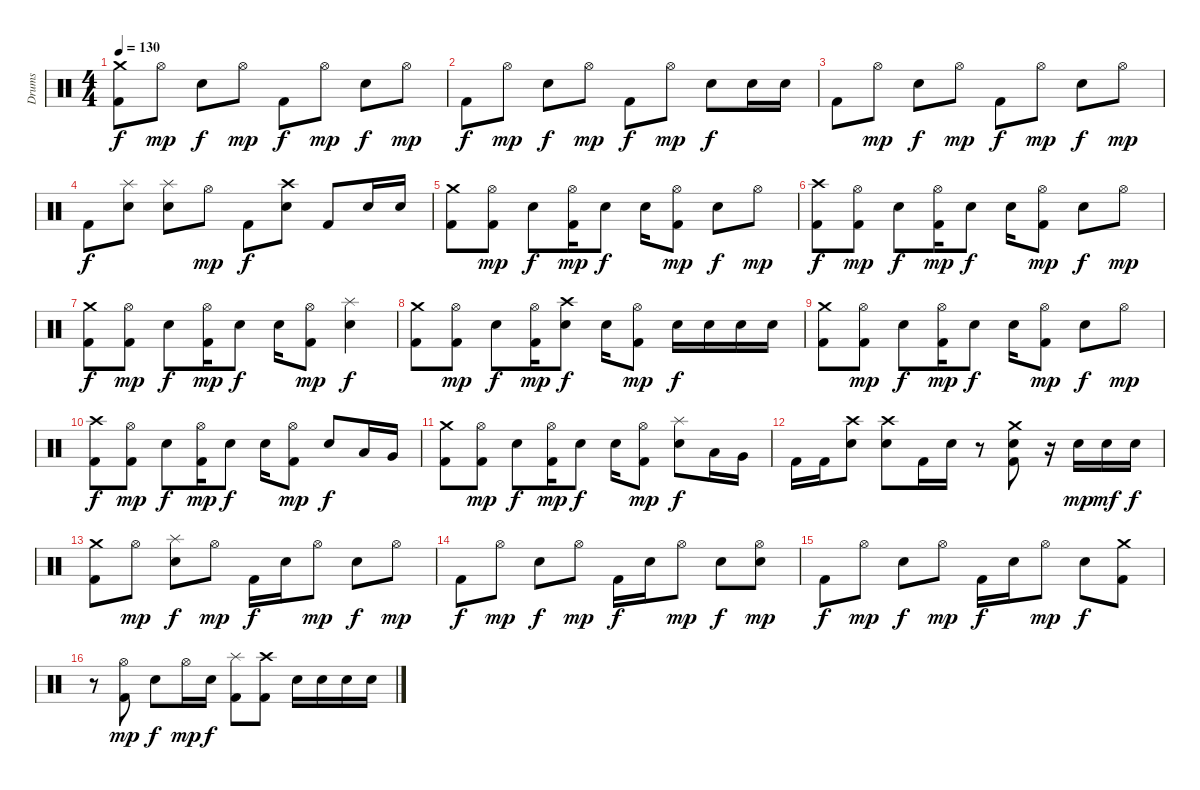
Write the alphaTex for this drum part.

\track ("Drums" "Drums") {instrument percussion}
\staff {score}
\articulation defaults
\ts (4 4)
\tempo 130
\clef neutral
\ks c
("Crash medium (hit)" "Kick (hit) 2").8{dy f} "Hi-Hat (open)".8{dy mp} "Snare (hit) 2".8{dy f} "Hi-Hat (open)".8{dy mp} "Kick (hit) 2".8{dy f} "Hi-Hat (open)".8{dy mp} "Snare (hit) 2".8{dy f} "Hi-Hat (open)".8{dy mp} |
"Kick (hit) 2".8{dy f} "Hi-Hat (open)".8{dy mp} "Snare (hit) 2".8{dy f} "Hi-Hat (open)".8{dy mp} "Kick (hit) 2".8{dy f} "Hi-Hat (open)".8{dy mp} "Snare (hit) 2".8{dy f} "Snare (hit) 2".16 "Snare (hit) 2".16 |
"Kick (hit) 2".8 "Hi-Hat (open)".8{dy mp} "Snare (hit) 2".8{dy f} "Hi-Hat (open)".8{dy mp} "Kick (hit) 2".8{dy f} "Hi-Hat (open)".8{dy mp} "Snare (hit) 2".8{dy f} "Hi-Hat (open)".8{dy mp} |
"Kick (hit) 2".8{dy f} ("Splash (hit)" "Snare (hit) 2").8 ("Splash (hit)" "Snare (hit) 2").8 "Hi-Hat (open)".8{dy mp} "Kick (hit) 2".8{dy f} ("Crash high (hit)" "Snare (hit) 2").8 "Kick (hit) 2".8 "Snare (hit) 2".16 "Snare (hit) 2".16 |
("Crash medium (hit)" "Kick (hit) 2").8 ("Hi-Hat (open)" "Kick (hit) 2").8{dy mp} "Snare (hit) 2".8{dy f} ("Hi-Hat (open)" "Kick (hit) 2").16{dy mp} "Snare (hit) 2".8{dy f} "Snare (hit) 2".16 ("Hi-Hat (open)" "Kick (hit) 2").8{dy mp} "Snare (hit) 2".8{dy f} "Hi-Hat (open)".8{dy mp} |
("Crash high (hit)" "Kick (hit) 2").8{dy f} ("Hi-Hat (open)" "Kick (hit) 2").8{dy mp} "Snare (hit) 2".8{dy f} ("Hi-Hat (open)" "Kick (hit) 2").16{dy mp} "Snare (hit) 2".8{dy f} "Snare (hit) 2".16 ("Hi-Hat (open)" "Kick (hit) 2").8{dy mp} "Snare (hit) 2".8{dy f} "Hi-Hat (open)".8{dy mp} |
("Crash medium (hit)" "Kick (hit) 2").8{dy f} ("Hi-Hat (open)" "Kick (hit) 2").8{dy mp} "Snare (hit) 2".8{dy f} ("Hi-Hat (open)" "Kick (hit) 2").16{dy mp} "Snare (hit) 2".8{dy f} "Snare (hit) 2".16 ("Hi-Hat (open)" "Kick (hit) 2").8{dy mp} ("Splash (hit)" "Snare (hit) 2").4{dy f} |
("Crash medium (hit)" "Kick (hit) 2").8 ("Hi-Hat (open)" "Kick (hit) 2").8{dy mp} "Snare (hit) 2".8{dy f} ("Hi-Hat (open)" "Kick (hit) 2").16{dy mp} ("Crash high (hit)" "Snare (hit) 2").8{dy f} "Snare (hit) 2".16 ("Hi-Hat (open)" "Kick (hit) 2").8{dy mp} "Snare (hit) 2".16{dy f} "Snare (hit) 2".16 "Snare (hit) 2".16 "Snare (hit) 2".16 |
("Crash medium (hit)" "Kick (hit) 2").8 ("Hi-Hat (open)" "Kick (hit) 2").8{dy mp} "Snare (hit) 2".8{dy f} ("Hi-Hat (open)" "Kick (hit) 2").16{dy mp} "Snare (hit) 2".8{dy f} "Snare (hit) 2".16 ("Hi-Hat (open)" "Kick (hit) 2").8{dy mp} "Snare (hit) 2".8{dy f} "Hi-Hat (open)".8{dy mp} |
("Crash high (hit)" "Kick (hit) 2").8{dy f} ("Hi-Hat (open)" "Kick (hit) 2").8{dy mp} "Snare (hit) 2".8{dy f} ("Hi-Hat (open)" "Kick (hit) 2").16{dy mp} "Snare (hit) 2".8{dy f} "Snare (hit) 2".16 ("Hi-Hat (open)" "Kick (hit) 2").8{dy mp} "Snare (hit) 2".8{dy f} "Low Tom (hit)".16 "Very Low Tom (hit)".16 |
("Crash medium (hit)" "Kick (hit) 2").8 ("Hi-Hat (open)" "Kick (hit) 2").8{dy mp} "Snare (hit) 2".8{dy f} ("Hi-Hat (open)" "Kick (hit) 2").16{dy mp} "Snare (hit) 2".8{dy f} "Snare (hit) 2".16 ("Hi-Hat (open)" "Kick (hit) 2").8{dy mp} ("Splash (hit)" "Snare (hit) 2").8{dy f} "Low Tom (hit)".16 "Very Low Tom (hit)".16 |
"Kick (hit) 2".16 "Kick (hit) 2".16 ("Crash high (hit)" "Snare (hit) 2").8 ("Crash high (hit)" "Snare (hit) 2").8 "Kick (hit) 2".16 "Snare (hit) 2".16 r.8 ("Crash medium (hit)" "Snare (hit) 2" "Kick (hit) 2").8 r.16 "Snare (hit) 2".16{dy mp} "Snare (hit) 2".16{dy mf} "Snare (hit) 2".16{dy f} |
("Crash medium (hit)" "Kick (hit) 2").8 "Hi-Hat (open)".8{dy mp} ("Splash (hit)" "Snare (hit) 2").8{dy f} "Hi-Hat (open)".8{dy mp} "Kick (hit) 2".16{dy f} "Snare (hit) 2".16 "Hi-Hat (open)".8{dy mp} "Snare (hit) 2".8{dy f} "Hi-Hat (open)".8{dy mp} |
"Kick (hit) 2".8{dy f} "Hi-Hat (open)".8{dy mp} "Snare (hit) 2".8{dy f} "Hi-Hat (open)".8{dy mp} "Kick (hit) 2".16{dy f} "Snare (hit) 2".16 "Hi-Hat (open)".8{dy mp} "Snare (hit) 2".8{dy f} ("Hi-Hat (open)" "Snare (hit) 2").8{dy mp} |
"Kick (hit) 2".8{dy f} "Hi-Hat (open)".8{dy mp} "Snare (hit) 2".8{dy f} "Hi-Hat (open)".8{dy mp} "Kick (hit) 2".16{dy f} "Snare (hit) 2".16 "Hi-Hat (open)".8{dy mp} "Snare (hit) 2".8{dy f} ("Crash medium (hit)" "Kick (hit) 2").8 |
r.8 ("Hi-Hat (open)" "Kick (hit) 2").8{dy mp} "Snare (hit) 2".8{dy f} "Hi-Hat (open)".16{dy mp} "Snare (hit) 2".16{dy f} ("Splash (hit)" "Kick (hit) 2").8 ("Crash high (hit)" "Kick (hit) 2").8 "Snare (hit) 2".16 "Snare (hit) 2".16 "Snare (hit) 2".16 "Snare (hit) 2".16
